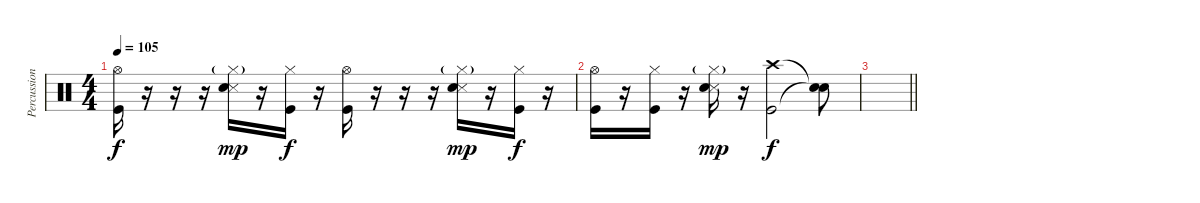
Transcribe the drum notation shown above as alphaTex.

\track ("Percussion" "Percussion") {instrument percussion}
\staff {score}
\articulation defaults
\ts (4 4)
\tempo 105
\clef neutral
\ks c
("Hi-Hat (open)" "Kick (hit)").16{dy f} r.16 r.16 r.16 ("Hi-Hat (closed)"{g} "Snare (side stick) 3" "Snare (hit) 2").16{dy mp} r.16 ("Hi-Hat (closed)" "Kick (hit)").16{dy f} r.16 ("Hi-Hat (open)" "Kick (hit)").16 r.16 r.16 r.16 ("Hi-Hat (closed)"{g} "Snare (side stick) 3" "Snare (hit) 2").16{dy mp} r.16 ("Hi-Hat (closed)" "Kick (hit)").16{dy f} r.16 |
("Hi-Hat (open)" "Kick (hit)").16 r.16 ("Hi-Hat (closed)" "Kick (hit)").16 r.16 ("Hi-Hat (closed)"{g} "Snare (side stick) 3" "Snare (hit) 2").16{dy mp} r.16 ("Crash high (hit)" "Kick (hit)").2{dy f} ("Snare (hit)"{t} "Snare (hit)"{t}).8 |
\barLineRight lightlight
